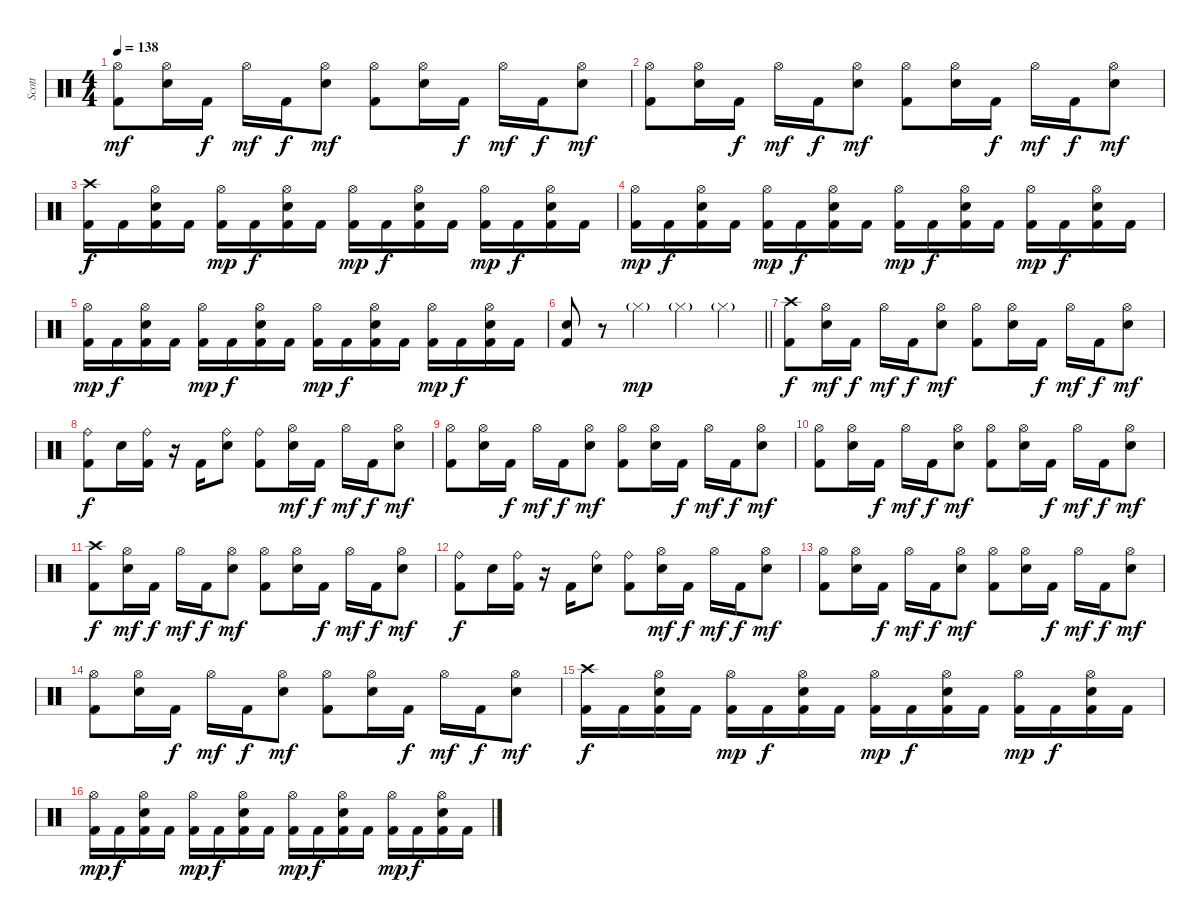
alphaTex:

\track ("Scott" "Scott") {instrument percussion}
\staff {score}
\articulation defaults
\ts (4 4)
\tempo 138
\clef neutral
\ks c
("Hi-Hat (open)" "Kick (hit) 2").8{dy mf} ("Hi-Hat (open)" "Electric Snare (hit)").16 "Kick (hit) 2".16{dy f} "Hi-Hat (open)".16{dy mf} "Kick (hit) 2".16{dy f} ("Hi-Hat (open)" "Electric Snare (hit)").8{dy mf} ("Hi-Hat (open)" "Kick (hit) 2").8 ("Hi-Hat (open)" "Electric Snare (hit)").16 "Kick (hit) 2".16{dy f} "Hi-Hat (open)".16{dy mf} "Kick (hit) 2".16{dy f} ("Hi-Hat (open)" "Electric Snare (hit)").8{dy mf} |
("Hi-Hat (open)" "Kick (hit) 2").8 ("Hi-Hat (open)" "Electric Snare (hit)").16 "Kick (hit) 2".16{dy f} "Hi-Hat (open)".16{dy mf} "Kick (hit) 2".16{dy f} ("Hi-Hat (open)" "Electric Snare (hit)").8{dy mf} ("Hi-Hat (open)" "Kick (hit) 2").8 ("Hi-Hat (open)" "Electric Snare (hit)").16 "Kick (hit) 2".16{dy f} "Hi-Hat (open)".16{dy mf} "Kick (hit) 2".16{dy f} ("Hi-Hat (open)" "Electric Snare (hit)").8{dy mf} |
("Crash high (hit)" "Kick (hit) 2").16{dy f} "Kick (hit) 2".16 ("Hi-Hat (open)" "Electric Snare (hit)" "Kick (hit) 2").16 "Kick (hit) 2".16 ("Hi-Hat (open)" "Kick (hit) 2").16{dy mp} "Kick (hit) 2".16{dy f} ("Hi-Hat (open)" "Electric Snare (hit)" "Kick (hit) 2").16 "Kick (hit) 2".16 ("Hi-Hat (open)" "Kick (hit) 2").16{dy mp} "Kick (hit) 2".16{dy f} ("Hi-Hat (open)" "Electric Snare (hit)" "Kick (hit) 2").16 "Kick (hit) 2".16 ("Hi-Hat (open)" "Kick (hit) 2").16{dy mp} "Kick (hit) 2".16{dy f} ("Hi-Hat (open)" "Electric Snare (hit)" "Kick (hit) 2").16 "Kick (hit) 2".16 |
("Hi-Hat (open)" "Kick (hit) 2").16{dy mp} "Kick (hit) 2".16{dy f} ("Hi-Hat (open)" "Electric Snare (hit)" "Kick (hit) 2").16 "Kick (hit) 2".16 ("Hi-Hat (open)" "Kick (hit) 2").16{dy mp} "Kick (hit) 2".16{dy f} ("Hi-Hat (open)" "Electric Snare (hit)" "Kick (hit) 2").16 "Kick (hit) 2".16 ("Hi-Hat (open)" "Kick (hit) 2").16{dy mp} "Kick (hit) 2".16{dy f} ("Hi-Hat (open)" "Electric Snare (hit)" "Kick (hit) 2").16 "Kick (hit) 2".16 ("Hi-Hat (open)" "Kick (hit) 2").16{dy mp} "Kick (hit) 2".16{dy f} ("Hi-Hat (open)" "Electric Snare (hit)" "Kick (hit) 2").16 "Kick (hit) 2".16 |
("Hi-Hat (open)" "Kick (hit) 2").16{dy mp} "Kick (hit) 2".16{dy f} ("Hi-Hat (open)" "Electric Snare (hit)" "Kick (hit) 2").16 "Kick (hit) 2".16 ("Hi-Hat (open)" "Kick (hit) 2").16{dy mp} "Kick (hit) 2".16{dy f} ("Hi-Hat (open)" "Electric Snare (hit)" "Kick (hit) 2").16 "Kick (hit) 2".16 ("Hi-Hat (open)" "Kick (hit) 2").16{dy mp} "Kick (hit) 2".16{dy f} ("Hi-Hat (open)" "Electric Snare (hit)" "Kick (hit) 2").16 "Kick (hit) 2".16 ("Hi-Hat (open)" "Kick (hit) 2").16{dy mp} "Kick (hit) 2".16{dy f} ("Hi-Hat (open)" "Electric Snare (hit)" "Kick (hit) 2").16 "Kick (hit) 2".16 |
\barLineRight lightlight
("Electric Snare (hit)" "Kick (hit) 2").8 r.8 "Hi-Hat (closed)"{g}.4{dy mp} "Hi-Hat (closed)"{g}.4 "Hi-Hat (closed)"{g}.4 |
("Crash high (hit)" "Kick (hit) 2").8{dy f} ("Hi-Hat (open)" "Electric Snare (hit)").16{dy mf} "Kick (hit) 2".16{dy f} "Hi-Hat (open)".16{dy mf} "Kick (hit) 2".16{dy f} ("Hi-Hat (open)" "Electric Snare (hit)").8{dy mf} ("Hi-Hat (open)" "Kick (hit) 2").8 ("Hi-Hat (open)" "Electric Snare (hit)").16 "Kick (hit) 2".16{dy f} "Hi-Hat (open)".16{dy mf} "Kick (hit) 2".16{dy f} ("Hi-Hat (open)" "Electric Snare (hit)").8{dy mf} |
("Ride (bell)" "Kick (hit) 2").8{dy f} "Electric Snare (hit)".16 ("Ride (bell)" "Kick (hit) 2").16 r.16 "Kick (hit) 2".16 ("Ride (bell)" "Electric Snare (hit)").8 ("Ride (bell)" "Kick (hit) 2").8 ("Hi-Hat (open)" "Electric Snare (hit)").16{dy mf} "Kick (hit) 2".16{dy f} "Hi-Hat (open)".16{dy mf} "Kick (hit) 2".16{dy f} ("Hi-Hat (open)" "Electric Snare (hit)").8{dy mf} |
("Hi-Hat (open)" "Kick (hit) 2").8 ("Hi-Hat (open)" "Electric Snare (hit)").16 "Kick (hit) 2".16{dy f} "Hi-Hat (open)".16{dy mf} "Kick (hit) 2".16{dy f} ("Hi-Hat (open)" "Electric Snare (hit)").8{dy mf} ("Hi-Hat (open)" "Kick (hit) 2").8 ("Hi-Hat (open)" "Electric Snare (hit)").16 "Kick (hit) 2".16{dy f} "Hi-Hat (open)".16{dy mf} "Kick (hit) 2".16{dy f} ("Hi-Hat (open)" "Electric Snare (hit)").8{dy mf} |
("Hi-Hat (open)" "Kick (hit) 2").8 ("Hi-Hat (open)" "Electric Snare (hit)").16 "Kick (hit) 2".16{dy f} "Hi-Hat (open)".16{dy mf} "Kick (hit) 2".16{dy f} ("Hi-Hat (open)" "Electric Snare (hit)").8{dy mf} ("Hi-Hat (open)" "Kick (hit) 2").8 ("Hi-Hat (open)" "Electric Snare (hit)").16 "Kick (hit) 2".16{dy f} "Hi-Hat (open)".16{dy mf} "Kick (hit) 2".16{dy f} ("Hi-Hat (open)" "Electric Snare (hit)").8{dy mf} |
("Crash high (hit)" "Kick (hit) 2").8{dy f} ("Hi-Hat (open)" "Electric Snare (hit)").16{dy mf} "Kick (hit) 2".16{dy f} "Hi-Hat (open)".16{dy mf} "Kick (hit) 2".16{dy f} ("Hi-Hat (open)" "Electric Snare (hit)").8{dy mf} ("Hi-Hat (open)" "Kick (hit) 2").8 ("Hi-Hat (open)" "Electric Snare (hit)").16 "Kick (hit) 2".16{dy f} "Hi-Hat (open)".16{dy mf} "Kick (hit) 2".16{dy f} ("Hi-Hat (open)" "Electric Snare (hit)").8{dy mf} |
("Ride (bell)" "Kick (hit) 2").8{dy f} "Electric Snare (hit)".16 ("Ride (bell)" "Kick (hit) 2").16 r.16 "Kick (hit) 2".16 ("Ride (bell)" "Electric Snare (hit)").8 ("Ride (bell)" "Kick (hit) 2").8 ("Hi-Hat (open)" "Electric Snare (hit)").16{dy mf} "Kick (hit) 2".16{dy f} "Hi-Hat (open)".16{dy mf} "Kick (hit) 2".16{dy f} ("Hi-Hat (open)" "Electric Snare (hit)").8{dy mf} |
("Hi-Hat (open)" "Kick (hit) 2").8 ("Hi-Hat (open)" "Electric Snare (hit)").16 "Kick (hit) 2".16{dy f} "Hi-Hat (open)".16{dy mf} "Kick (hit) 2".16{dy f} ("Hi-Hat (open)" "Electric Snare (hit)").8{dy mf} ("Hi-Hat (open)" "Kick (hit) 2").8 ("Hi-Hat (open)" "Electric Snare (hit)").16 "Kick (hit) 2".16{dy f} "Hi-Hat (open)".16{dy mf} "Kick (hit) 2".16{dy f} ("Hi-Hat (open)" "Electric Snare (hit)").8{dy mf} |
("Hi-Hat (open)" "Kick (hit) 2").8 ("Hi-Hat (open)" "Electric Snare (hit)").16 "Kick (hit) 2".16{dy f} "Hi-Hat (open)".16{dy mf} "Kick (hit) 2".16{dy f} ("Hi-Hat (open)" "Electric Snare (hit)").8{dy mf} ("Hi-Hat (open)" "Kick (hit) 2").8 ("Hi-Hat (open)" "Electric Snare (hit)").16 "Kick (hit) 2".16{dy f} "Hi-Hat (open)".16{dy mf} "Kick (hit) 2".16{dy f} ("Hi-Hat (open)" "Electric Snare (hit)").8{dy mf} |
("Crash high (hit)" "Kick (hit) 2").16{dy f} "Kick (hit) 2".16 ("Hi-Hat (open)" "Electric Snare (hit)" "Kick (hit) 2").16 "Kick (hit) 2".16 ("Hi-Hat (open)" "Kick (hit) 2").16{dy mp} "Kick (hit) 2".16{dy f} ("Hi-Hat (open)" "Electric Snare (hit)" "Kick (hit) 2").16 "Kick (hit) 2".16 ("Hi-Hat (open)" "Kick (hit) 2").16{dy mp} "Kick (hit) 2".16{dy f} ("Hi-Hat (open)" "Electric Snare (hit)" "Kick (hit) 2").16 "Kick (hit) 2".16 ("Hi-Hat (open)" "Kick (hit) 2").16{dy mp} "Kick (hit) 2".16{dy f} ("Hi-Hat (open)" "Electric Snare (hit)" "Kick (hit) 2").16 "Kick (hit) 2".16 |
("Hi-Hat (open)" "Kick (hit) 2").16{dy mp} "Kick (hit) 2".16{dy f} ("Hi-Hat (open)" "Electric Snare (hit)" "Kick (hit) 2").16 "Kick (hit) 2".16 ("Hi-Hat (open)" "Kick (hit) 2").16{dy mp} "Kick (hit) 2".16{dy f} ("Hi-Hat (open)" "Electric Snare (hit)" "Kick (hit) 2").16 "Kick (hit) 2".16 ("Hi-Hat (open)" "Kick (hit) 2").16{dy mp} "Kick (hit) 2".16{dy f} ("Hi-Hat (open)" "Electric Snare (hit)" "Kick (hit) 2").16 "Kick (hit) 2".16 ("Hi-Hat (open)" "Kick (hit) 2").16{dy mp} "Kick (hit) 2".16{dy f} ("Hi-Hat (open)" "Electric Snare (hit)" "Kick (hit) 2").16 "Kick (hit) 2".16
